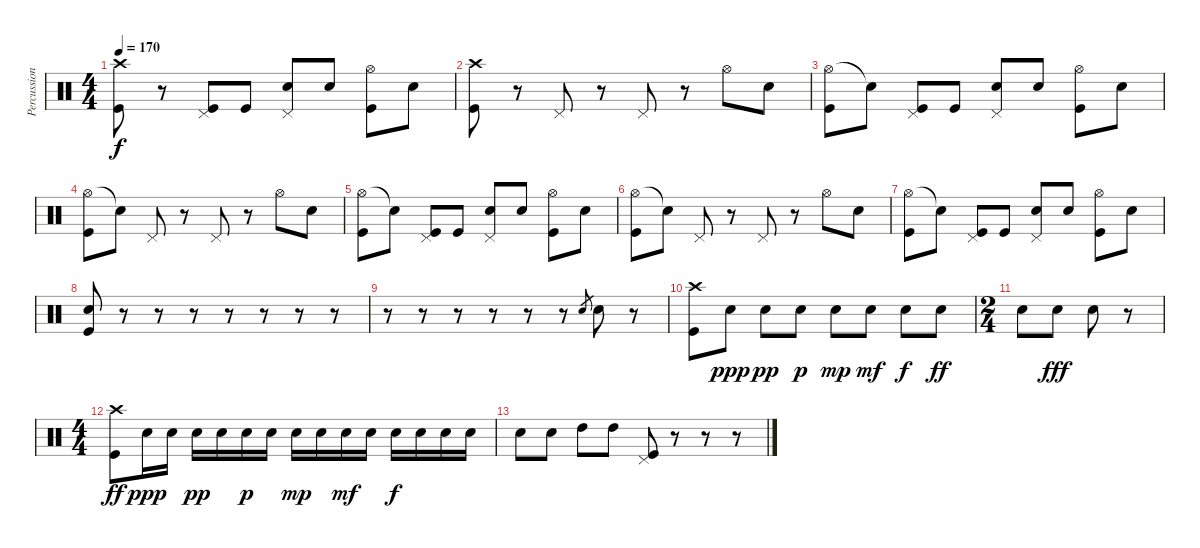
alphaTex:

\track ("Percussion" "Percussion") {instrument percussion}
\staff {score}
\articulation defaults
\ts (4 4)
\tempo 170
\clef neutral
\ks c
("Crash high (hit)" "Kick (hit)").8{dy f} r.8 ("Pedal Hi-Hat (hit)" "Kick (hit)").8 "Kick (hit)".8 ("Snare (hit) 2" "Pedal Hi-Hat (hit)").8 "Snare (hit) 2".8 ("Hi-Hat (open)" "Kick (hit)").8 "Snare (hit) 2".8 |
("Crash high (hit)" "Kick (hit)").8 r.8 "Pedal Hi-Hat (hit)".8 r.8 "Pedal Hi-Hat (hit)".8 r.8 "Hi-Hat (open)".8 "Snare (hit) 2".8 |
("Hi-Hat (open)" "Kick (hit)").8 "Snare (hit)"{t}.8 ("Pedal Hi-Hat (hit)" "Kick (hit)").8 "Kick (hit)".8 ("Snare (hit) 2" "Pedal Hi-Hat (hit)").8 "Snare (hit) 2".8 ("Hi-Hat (open)" "Kick (hit)").8 "Snare (hit) 2".8 |
("Hi-Hat (open)" "Kick (hit)").8 "Snare (hit)"{t}.8 "Pedal Hi-Hat (hit)".8 r.8 "Pedal Hi-Hat (hit)".8 r.8 "Hi-Hat (open)".8 "Snare (hit) 2".8 |
("Hi-Hat (open)" "Kick (hit)").8 "Snare (hit)"{t}.8 ("Pedal Hi-Hat (hit)" "Kick (hit)").8 "Kick (hit)".8 ("Snare (hit) 2" "Pedal Hi-Hat (hit)").8 "Snare (hit) 2".8 ("Hi-Hat (open)" "Kick (hit)").8 "Snare (hit) 2".8 |
("Hi-Hat (open)" "Kick (hit)").8 "Snare (hit)"{t}.8 "Pedal Hi-Hat (hit)".8 r.8 "Pedal Hi-Hat (hit)".8 r.8 "Hi-Hat (open)".8 "Snare (hit) 2".8 |
("Hi-Hat (open)" "Kick (hit)").8 "Snare (hit)"{t}.8 ("Pedal Hi-Hat (hit)" "Kick (hit)").8 "Kick (hit)".8 ("Snare (hit) 2" "Pedal Hi-Hat (hit)").8 "Snare (hit) 2".8 ("Hi-Hat (open)" "Kick (hit)").8 "Snare (hit) 2".8 |
("Snare (hit) 2" "Kick (hit)").8 r.8 r.8 r.8 r.8 r.8 r.8 r.8 |
r.8 r.8 r.8 r.8 r.8 r.8 "Snare (hit) 2".8{gr} "Snare (hit) 2".8 r.8 |
("Crash high (hit)" "Kick (hit)").8 "Snare (hit) 2".8{dy ppp} "Snare (hit) 2".8{dy pp} "Snare (hit) 2".8{dy p} "Snare (hit) 2".8{dy mp} "Snare (hit) 2".8{dy mf} "Snare (hit) 2".8{dy f} "Snare (hit) 2".8{dy ff} |
\ts (2 4)
"Snare (hit) 2".8 "Snare (hit) 2".8{dy fff} "Snare (hit) 2".8 r.8 |
\ts (4 4)
("Crash high (hit)" "Kick (hit)").8{dy ff} "Snare (hit) 2".16{dy ppp} "Snare (hit) 2".16 "Snare (hit) 2".16{dy pp} "Snare (hit) 2".16 "Snare (hit) 2".16{dy p} "Snare (hit) 2".16 "Snare (hit) 2".16{dy mp} "Snare (hit) 2".16 "Snare (hit) 2".16{dy mf} "Snare (hit) 2".16 "Snare (hit) 2".16{dy f} "Snare (hit) 2".16 "Snare (hit) 2".16 "Snare (hit) 2".16 |
"Snare (hit) 2".8 "Snare (hit) 2".8 "High Tom (hit)".8 "High Tom (hit)".8 ("Pedal Hi-Hat (hit)" "Kick (hit)").8 r.8 r.8 r.8
